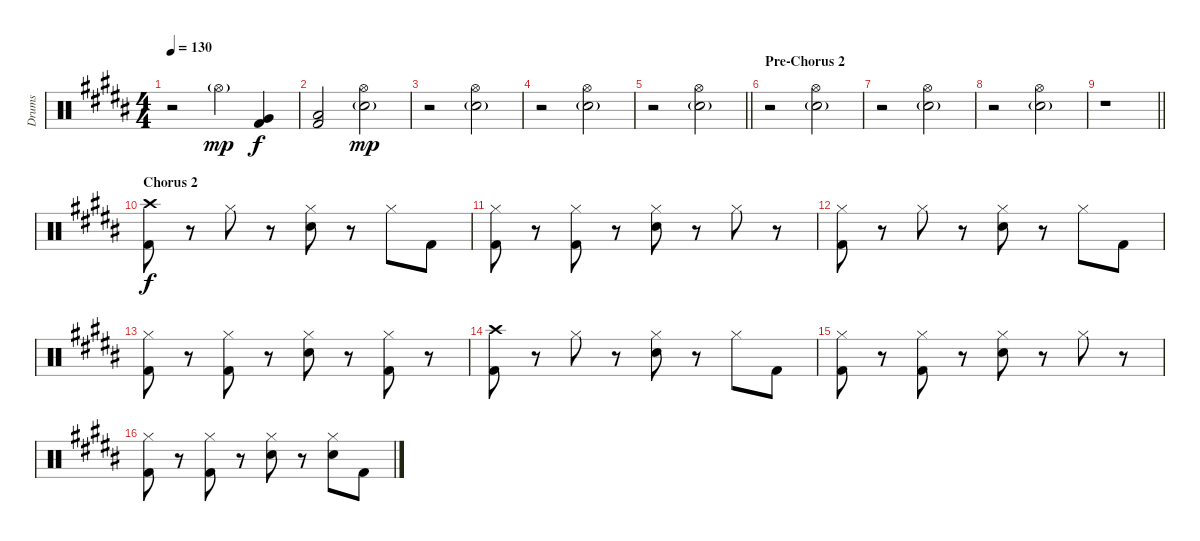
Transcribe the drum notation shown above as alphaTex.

\track ("Drums" "Drums") {instrument percussion}
\staff {score}
\articulation defaults
\ts (4 4)
\tempo 130
\clef neutral
\ks b
r.2{dy mp} "Hi-Hat (open)"{g}.4 ("Very Low Tom (hit)" "Kick (hit) 2").4{dy f} |
("Low Floor Tom (hit)" "Kick (hit) 2").2 ("Hi-Hat (open)" "Electric Snare (hit)"{g}).2{dy mp} |
r.2 ("Hi-Hat (open)" "Electric Snare (hit)"{g}).2 |
r.2 ("Hi-Hat (open)" "Electric Snare (hit)"{g}).2 |
\barLineRight lightlight
r.2 ("Hi-Hat (open)" "Electric Snare (hit)"{g}).2 |
\section ("" "Pre-Chorus 2")
r.2 ("Hi-Hat (open)" "Electric Snare (hit)"{g}).2 |
r.2 ("Hi-Hat (open)" "Electric Snare (hit)"{g}).2 |
r.2 ("Hi-Hat (open)" "Electric Snare (hit)"{g}).2 |
\barLineRight lightlight
r.1 |
\section ("" "Chorus 2")
("Crash high (hit)" "Kick (hit) 2").8{dy f} r.8 "Hi-Hat (closed)".8 r.8 ("Hi-Hat (closed)" "Electric Snare (hit)").8 r.8 "Hi-Hat (closed)".8 "Kick (hit) 2".8 |
("Hi-Hat (closed)" "Kick (hit) 2").8 r.8 ("Hi-Hat (closed)" "Kick (hit) 2").8 r.8 ("Hi-Hat (closed)" "Electric Snare (hit)").8 r.8 "Hi-Hat (closed)".8 r.8 |
("Hi-Hat (closed)" "Kick (hit) 2").8 r.8 "Hi-Hat (closed)".8 r.8 ("Hi-Hat (closed)" "Electric Snare (hit)").8 r.8 "Hi-Hat (closed)".8 "Kick (hit) 2".8 |
("Hi-Hat (closed)" "Kick (hit) 2").8 r.8 ("Hi-Hat (closed)" "Kick (hit) 2").8 r.8 ("Hi-Hat (closed)" "Electric Snare (hit)").8 r.8 ("Hi-Hat (closed)" "Kick (hit) 2").8 r.8 |
("Crash high (hit)" "Kick (hit) 2").8 r.8 "Hi-Hat (closed)".8 r.8 ("Hi-Hat (closed)" "Electric Snare (hit)").8 r.8 "Hi-Hat (closed)".8 "Kick (hit) 2".8 |
("Hi-Hat (closed)" "Kick (hit) 2").8 r.8 ("Hi-Hat (closed)" "Kick (hit) 2").8 r.8 ("Hi-Hat (closed)" "Electric Snare (hit)").8 r.8 "Hi-Hat (closed)".8 r.8 |
("Hi-Hat (closed)" "Kick (hit) 2").8 r.8 ("Hi-Hat (closed)" "Kick (hit) 2").8 r.8 ("Hi-Hat (closed)" "Electric Snare (hit)").8 r.8 ("Hi-Hat (closed)" "Electric Snare (hit)").8 "Kick (hit) 2".8
